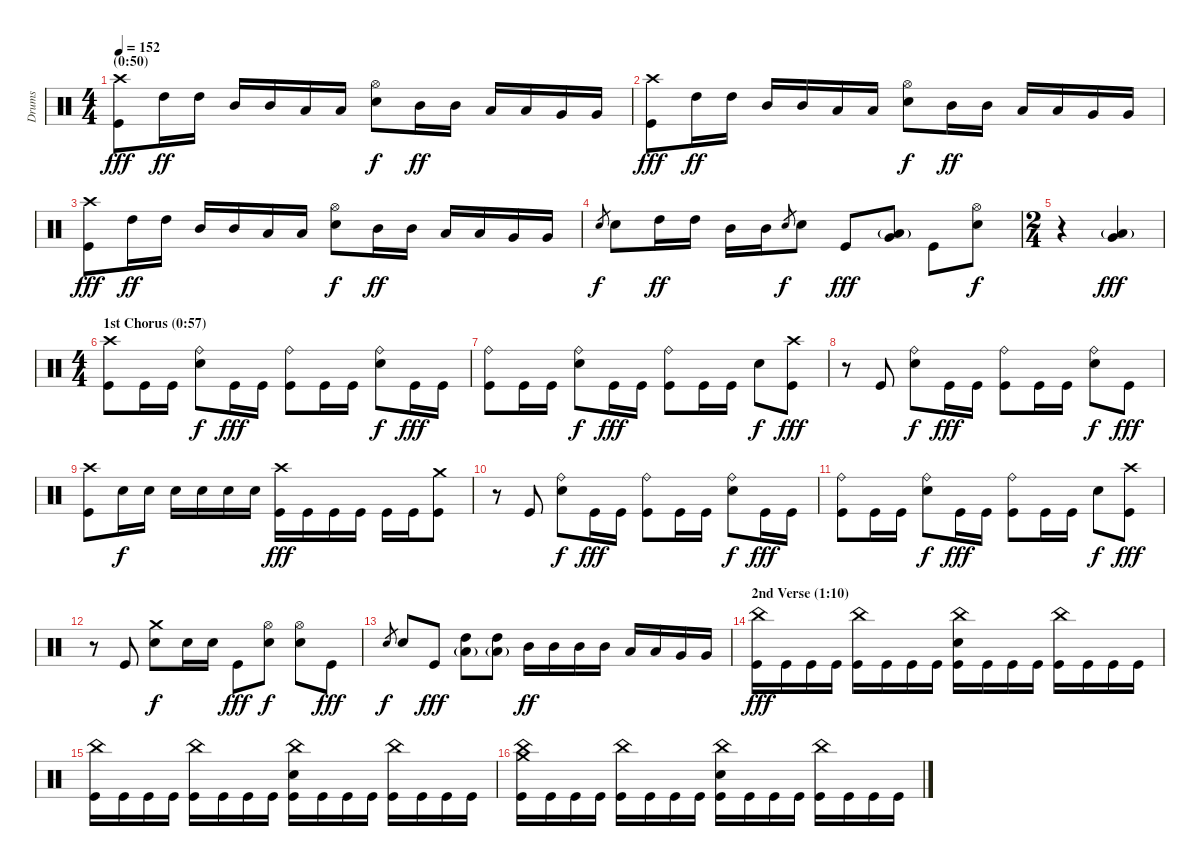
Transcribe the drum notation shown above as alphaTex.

\track ("Drums" "Drums") {instrument percussion}
\staff {score}
\articulation defaults
\ts (4 4)
\section ("" "(0:50)")
\tempo 152
\clef neutral
\ks c
("Crash high (hit)" "Kick (hit)").8{dy fff} "High Tom (hit)".16{dy ff} "High Tom (hit)".16 "Mid Tom (hit)".16 "Mid Tom (hit)".16 "Low Tom (hit)".16 "Low Tom (hit)".16 ("Hi-Hat (open)" "Snare (hit) 2").8{dy f} "Mid Tom (hit)".16{dy ff} "Mid Tom (hit)".16 "Low Tom (hit)".16 "Low Tom (hit)".16 "Very Low Tom (hit)".16 "Very Low Tom (hit)".16 |
("Crash high (hit)" "Kick (hit)").8{dy fff} "High Tom (hit)".16{dy ff} "High Tom (hit)".16 "Mid Tom (hit)".16 "Mid Tom (hit)".16 "Low Tom (hit)".16 "Low Tom (hit)".16 ("Hi-Hat (open)" "Snare (hit) 2").8{dy f} "Mid Tom (hit)".16{dy ff} "Mid Tom (hit)".16 "Low Tom (hit)".16 "Low Tom (hit)".16 "Very Low Tom (hit)".16 "Very Low Tom (hit)".16 |
("Crash high (hit)" "Kick (hit)").8{dy fff} "High Tom (hit)".16{dy ff} "High Tom (hit)".16 "Mid Tom (hit)".16 "Mid Tom (hit)".16 "Low Tom (hit)".16 "Low Tom (hit)".16 ("Hi-Hat (open)" "Snare (hit) 2").8{dy f} "Mid Tom (hit)".16{dy ff} "Mid Tom (hit)".16 "Low Tom (hit)".16 "Low Tom (hit)".16 "Very Low Tom (hit)".16 "Very Low Tom (hit)".16 |
"Snare (hit) 2".8{gr dy f} "Snare (hit) 2".8 "High Tom (hit)".16{dy ff} "High Tom (hit)".16 "Mid Tom (hit)".16 "Mid Tom (hit)".16 "Snare (hit) 2".8{gr dy f} "Snare (hit) 2".8 "Kick (hit)".8{dy fff} ("Very Low Tom (hit)" "Low Floor Tom (hit)"{g}).8 "Kick (hit)".8 ("Hi-Hat (open)" "Snare (hit) 2").8{dy f} |
\ts (2 4)
r.4 ("Very Low Tom (hit)" "Low Floor Tom (hit)"{g}).4{dy fff} |
\ts (4 4)
\section ("" "1st Chorus (0:57)")
("Crash high (hit)" "Kick (hit)").8 "Kick (hit)".16 "Kick (hit)".16 ("Ride (bell)" "Snare (hit) 2").8{dy f} "Kick (hit)".16{dy fff} "Kick (hit)".16 ("Ride (bell)" "Kick (hit)").8 "Kick (hit)".16 "Kick (hit)".16 ("Ride (bell)" "Snare (hit) 2").8{dy f} "Kick (hit)".16{dy fff} "Kick (hit)".16 |
("Ride (bell)" "Kick (hit)").8 "Kick (hit)".16 "Kick (hit)".16 ("Ride (bell)" "Snare (hit) 2").8{dy f} "Kick (hit)".16{dy fff} "Kick (hit)".16 ("Ride (bell)" "Kick (hit)").8 "Kick (hit)".16 "Kick (hit)".16 "Snare (hit) 2".8{dy f} ("Crash high (hit)" "Kick (hit)").8{dy fff} |
r.8 "Kick (hit)".8 ("Ride (bell)" "Snare (hit) 2").8{dy f} "Kick (hit)".16{dy fff} "Kick (hit)".16 ("Ride (bell)" "Kick (hit)").8 "Kick (hit)".16 "Kick (hit)".16 ("Ride (bell)" "Snare (hit) 2").8{dy f} "Kick (hit)".8{dy fff} |
("Crash high (hit)" "Kick (hit)").8 "Snare (hit) 2".16{dy f} "Snare (hit) 2".16 "Snare (hit) 2".16 "Snare (hit) 2".16 "Snare (hit) 2".16 "Snare (hit) 2".16 ("Crash high (hit)" "Kick (hit)").16{dy fff} "Kick (hit)".16 "Kick (hit)".16 "Kick (hit)".16 "Kick (hit)".16 "Kick (hit)".16 ("Crash medium (hit)" "Kick (hit)").8 |
r.8 "Kick (hit)".8 ("Ride (bell)" "Snare (hit) 2").8{dy f} "Kick (hit)".16{dy fff} "Kick (hit)".16 ("Ride (bell)" "Kick (hit)").8 "Kick (hit)".16 "Kick (hit)".16 ("Ride (bell)" "Snare (hit) 2").8{dy f} "Kick (hit)".16{dy fff} "Kick (hit)".16 |
("Ride (bell)" "Kick (hit)").8 "Kick (hit)".16 "Kick (hit)".16 ("Ride (bell)" "Snare (hit) 2").8{dy f} "Kick (hit)".16{dy fff} "Kick (hit)".16 ("Ride (bell)" "Kick (hit)").8 "Kick (hit)".16 "Kick (hit)".16 "Snare (hit) 2".8{dy f} ("Crash high (hit)" "Kick (hit)").8{dy fff} |
r.8 "Kick (hit)".8 ("Crash medium (hit)" "Snare (hit) 2").8{dy f} "Snare (hit) 2".16 "Snare (hit) 2".16 "Kick (hit)".8{dy fff} ("Hi-Hat (open)" "Snare (hit) 2").8{dy f} ("Hi-Hat (open)" "Snare (hit) 2").8 "Kick (hit)".8{dy fff} |
"Snare (hit) 2".8{gr dy f} "Snare (hit) 2".8 "Kick (hit)".8{dy fff} ("High Tom (hit)" "Low Floor Tom (hit)"{g}).8 ("High Tom (hit)" "Low Floor Tom (hit)"{g}).8 "Mid Tom (hit)".16{dy ff} "Mid Tom (hit)".16 "Mid Tom (hit)".16 "Mid Tom (hit)".16 "Low Tom (hit)".16 "Low Tom (hit)".16 "Very Low Tom (hit)".16 "Very Low Tom (hit)".16 |
\section ("" "2nd Verse (1:10)")
("China (hit)" "Kick (hit)").16{dy fff} "Kick (hit)".16 "Kick (hit)".16 "Kick (hit)".16 ("China (hit)" "Kick (hit)").16 "Kick (hit)".16 "Kick (hit)".16 "Kick (hit)".16 ("China (hit)" "Snare (hit) 2" "Kick (hit)").16 "Kick (hit)".16 "Kick (hit)".16 "Kick (hit)".16 ("China (hit)" "Kick (hit)").16 "Kick (hit)".16 "Kick (hit)".16 "Kick (hit)".16 |
("China (hit)" "Kick (hit)").16 "Kick (hit)".16 "Kick (hit)".16 "Kick (hit)".16 ("China (hit)" "Kick (hit)").16 "Kick (hit)".16 "Kick (hit)".16 "Kick (hit)".16 ("China (hit)" "Snare (hit) 2" "Kick (hit)").16 "Kick (hit)".16 "Kick (hit)".16 "Kick (hit)".16 ("China (hit)" "Kick (hit)").16 "Kick (hit)".16 "Kick (hit)".16 "Kick (hit)".16 |
("China (hit)" "Crash medium (hit)" "Kick (hit)").16 "Kick (hit)".16 "Kick (hit)".16 "Kick (hit)".16 ("China (hit)" "Kick (hit)").16 "Kick (hit)".16 "Kick (hit)".16 "Kick (hit)".16 ("China (hit)" "Snare (hit) 2" "Kick (hit)").16 "Kick (hit)".16 "Kick (hit)".16 "Kick (hit)".16 ("China (hit)" "Kick (hit)").16 "Kick (hit)".16 "Kick (hit)".16 "Kick (hit)".16
